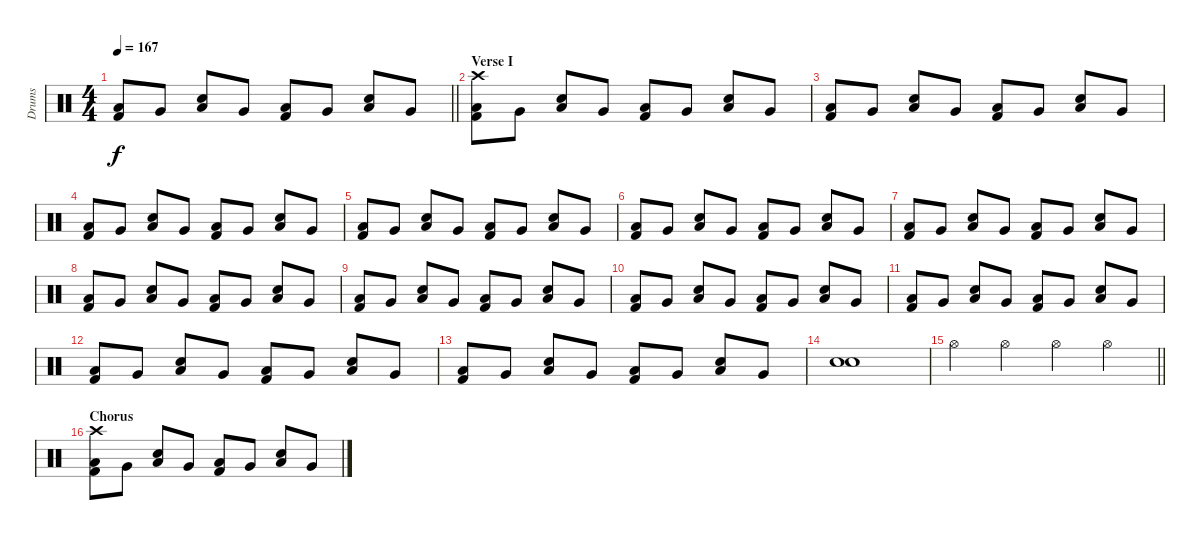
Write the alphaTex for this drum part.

\track ("Drums" "Drums") {instrument percussion}
\staff {score}
\articulation defaults
\ts (4 4)
\tempo 167
\clef neutral
\barLineRight lightlight
\ks c
("Low Floor Tom (hit)" "Kick (hit) 2").8{dy f} "Very Low Tom (hit)".8 ("Low Floor Tom (hit)" "Snare (hit) 2").8 "Very Low Tom (hit)".8 ("Low Floor Tom (hit)" "Kick (hit) 2").8 "Very Low Tom (hit)".8 ("Low Floor Tom (hit)" "Snare (hit) 2").8 "Very Low Tom (hit)".8 |
\section ("" "Verse I")
("Crash high (hit)" "Low Floor Tom (hit)" "Kick (hit) 2").8 "Very Low Tom (hit)".8 ("Low Floor Tom (hit)" "Snare (hit) 2").8 "Very Low Tom (hit)".8 ("Low Floor Tom (hit)" "Kick (hit) 2").8 "Very Low Tom (hit)".8 ("Low Floor Tom (hit)" "Snare (hit) 2").8 "Very Low Tom (hit)".8 |
("Low Floor Tom (hit)" "Kick (hit) 2").8 "Very Low Tom (hit)".8 ("Low Floor Tom (hit)" "Snare (hit) 2").8 "Very Low Tom (hit)".8 ("Low Floor Tom (hit)" "Kick (hit) 2").8 "Very Low Tom (hit)".8 ("Low Floor Tom (hit)" "Snare (hit) 2").8 "Very Low Tom (hit)".8 |
("Low Floor Tom (hit)" "Kick (hit) 2").8 "Very Low Tom (hit)".8 ("Low Floor Tom (hit)" "Snare (hit) 2").8 "Very Low Tom (hit)".8 ("Low Floor Tom (hit)" "Kick (hit) 2").8 "Very Low Tom (hit)".8 ("Low Floor Tom (hit)" "Snare (hit) 2").8 "Very Low Tom (hit)".8 |
("Low Floor Tom (hit)" "Kick (hit) 2").8 "Very Low Tom (hit)".8 ("Low Floor Tom (hit)" "Snare (hit) 2").8 "Very Low Tom (hit)".8 ("Low Floor Tom (hit)" "Kick (hit) 2").8 "Very Low Tom (hit)".8 ("Low Floor Tom (hit)" "Snare (hit) 2").8 "Very Low Tom (hit)".8 |
("Low Floor Tom (hit)" "Kick (hit) 2").8 "Very Low Tom (hit)".8 ("Low Floor Tom (hit)" "Snare (hit) 2").8 "Very Low Tom (hit)".8 ("Low Floor Tom (hit)" "Kick (hit) 2").8 "Very Low Tom (hit)".8 ("Low Floor Tom (hit)" "Snare (hit) 2").8 "Very Low Tom (hit)".8 |
("Low Floor Tom (hit)" "Kick (hit) 2").8 "Very Low Tom (hit)".8 ("Low Floor Tom (hit)" "Snare (hit) 2").8 "Very Low Tom (hit)".8 ("Low Floor Tom (hit)" "Kick (hit) 2").8 "Very Low Tom (hit)".8 ("Low Floor Tom (hit)" "Snare (hit) 2").8 "Very Low Tom (hit)".8 |
("Low Floor Tom (hit)" "Kick (hit) 2").8 "Very Low Tom (hit)".8 ("Low Floor Tom (hit)" "Snare (hit) 2").8 "Very Low Tom (hit)".8 ("Low Floor Tom (hit)" "Kick (hit) 2").8 "Very Low Tom (hit)".8 ("Low Floor Tom (hit)" "Snare (hit) 2").8 "Very Low Tom (hit)".8 |
("Low Floor Tom (hit)" "Kick (hit) 2").8 "Very Low Tom (hit)".8 ("Low Floor Tom (hit)" "Snare (hit) 2").8 "Very Low Tom (hit)".8 ("Low Floor Tom (hit)" "Kick (hit) 2").8 "Very Low Tom (hit)".8 ("Low Floor Tom (hit)" "Snare (hit) 2").8 "Very Low Tom (hit)".8 |
("Low Floor Tom (hit)" "Kick (hit) 2").8 "Very Low Tom (hit)".8 ("Low Floor Tom (hit)" "Snare (hit) 2").8 "Very Low Tom (hit)".8 ("Low Floor Tom (hit)" "Kick (hit) 2").8 "Very Low Tom (hit)".8 ("Low Floor Tom (hit)" "Snare (hit) 2").8 "Very Low Tom (hit)".8 |
("Low Floor Tom (hit)" "Kick (hit) 2").8 "Very Low Tom (hit)".8 ("Low Floor Tom (hit)" "Snare (hit) 2").8 "Very Low Tom (hit)".8 ("Low Floor Tom (hit)" "Kick (hit) 2").8 "Very Low Tom (hit)".8 ("Low Floor Tom (hit)" "Snare (hit) 2").8 "Very Low Tom (hit)".8 |
("Low Floor Tom (hit)" "Kick (hit) 2").8 "Very Low Tom (hit)".8 ("Low Floor Tom (hit)" "Snare (hit) 2").8 "Very Low Tom (hit)".8 ("Low Floor Tom (hit)" "Kick (hit) 2").8 "Very Low Tom (hit)".8 ("Low Floor Tom (hit)" "Snare (hit) 2").8 "Very Low Tom (hit)".8 |
("Low Floor Tom (hit)" "Kick (hit) 2").8 "Very Low Tom (hit)".8 ("Low Floor Tom (hit)" "Snare (hit) 2").8 "Very Low Tom (hit)".8 ("Low Floor Tom (hit)" "Kick (hit) 2").8 "Very Low Tom (hit)".8 ("Low Floor Tom (hit)" "Snare (hit) 2").8 "Very Low Tom (hit)".8 |
("Snare (hit) 2" "Snare (hit) 2").1{bd 60} |
\barLineRight lightlight "Hi-Hat (open)".4 "Hi-Hat (open)".4 "Hi-Hat (open)".4 "Hi-Hat (open)".4
|
\section ("" "Chorus")
("Crash high (hit)" "Low Floor Tom (hit)" "Kick (hit) 2").8 "Very Low Tom (hit)".8 ("Low Floor Tom (hit)" "Snare (hit) 2").8 "Very Low Tom (hit)".8 ("Low Floor Tom (hit)" "Kick (hit) 2").8 "Very Low Tom (hit)".8 ("Low Floor Tom (hit)" "Snare (hit) 2").8 "Very Low Tom (hit)".8
